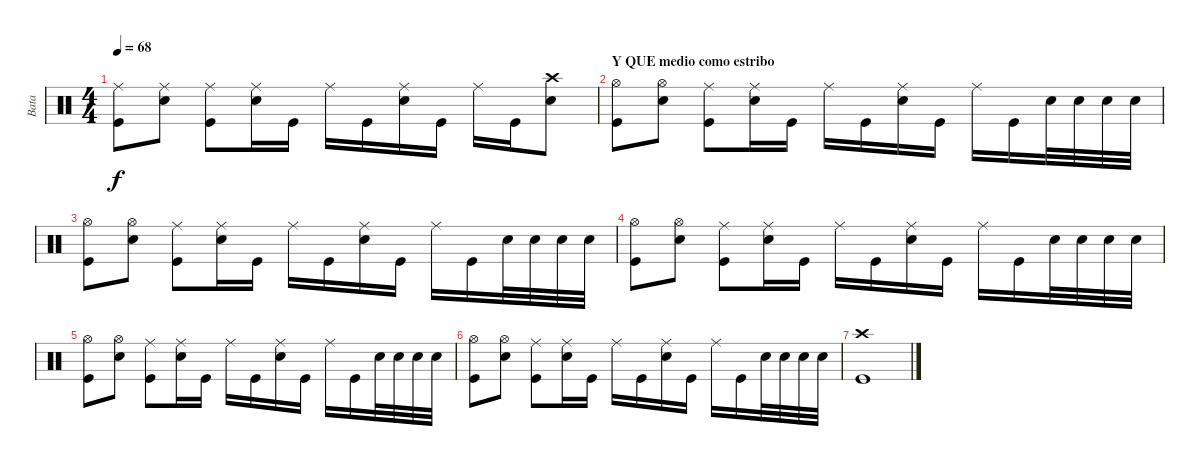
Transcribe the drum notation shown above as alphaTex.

\track ("Bata" "Bata") {instrument percussion}
\staff {score}
\articulation defaults
\ts (4 4)
\tempo 68
\clef neutral
\ks c
("Ride (middle)" "Kick (hit)").8{dy f} ("Ride (middle)" "Electric Snare (hit)").8 ("Ride (middle)" "Kick (hit)").8 ("Ride (middle)" "Electric Snare (hit)").16 "Kick (hit)".16 "Ride (middle)".16 "Kick (hit)".16 ("Ride (middle)" "Electric Snare (hit)").16 "Kick (hit)".16 "Ride (middle)".16 "Kick (hit)".16 ("Crash high (hit)" "Electric Snare (hit)").8 |
\section ("" "Y QUE medio como estribo")
("Hi-Hat (open)" "Kick (hit)").8 ("Hi-Hat (open)" "Electric Snare (hit)").8 ("Ride (middle)" "Kick (hit)").8 ("Ride (middle)" "Electric Snare (hit)").16 "Kick (hit)".16 "Ride (middle)".16 "Kick (hit)".16 ("Ride (middle)" "Electric Snare (hit)").16 "Kick (hit)".16 "Ride (middle)".16 "Kick (hit)".16 "Electric Snare (hit)".32 "Electric Snare (hit)".32 "Electric Snare (hit)".32 "Electric Snare (hit)".32 |
("Hi-Hat (open)" "Kick (hit)").8 ("Hi-Hat (open)" "Electric Snare (hit)").8 ("Ride (middle)" "Kick (hit)").8 ("Ride (middle)" "Electric Snare (hit)").16 "Kick (hit)".16 "Ride (middle)".16 "Kick (hit)".16 ("Ride (middle)" "Electric Snare (hit)").16 "Kick (hit)".16 "Ride (middle)".16 "Kick (hit)".16 "Electric Snare (hit)".32 "Electric Snare (hit)".32 "Electric Snare (hit)".32 "Electric Snare (hit)".32 |
("Hi-Hat (open)" "Kick (hit)").8 ("Hi-Hat (open)" "Electric Snare (hit)").8 ("Ride (middle)" "Kick (hit)").8 ("Ride (middle)" "Electric Snare (hit)").16 "Kick (hit)".16 "Ride (middle)".16 "Kick (hit)".16 ("Ride (middle)" "Electric Snare (hit)").16 "Kick (hit)".16 "Ride (middle)".16 "Kick (hit)".16 "Electric Snare (hit)".32 "Electric Snare (hit)".32 "Electric Snare (hit)".32 "Electric Snare (hit)".32 |
("Hi-Hat (open)" "Kick (hit)").8 ("Hi-Hat (open)" "Electric Snare (hit)").8 ("Ride (middle)" "Kick (hit)").8 ("Ride (middle)" "Electric Snare (hit)").16 "Kick (hit)".16 "Ride (middle)".16 "Kick (hit)".16 ("Ride (middle)" "Electric Snare (hit)").16 "Kick (hit)".16 "Ride (middle)".16 "Kick (hit)".16 "Electric Snare (hit)".32 "Electric Snare (hit)".32 "Electric Snare (hit)".32 "Electric Snare (hit)".32 |
("Hi-Hat (open)" "Kick (hit)").8 ("Hi-Hat (open)" "Electric Snare (hit)").8 ("Ride (middle)" "Kick (hit)").8 ("Ride (middle)" "Electric Snare (hit)").16 "Kick (hit)".16 "Ride (middle)".16 "Kick (hit)".16 ("Ride (middle)" "Electric Snare (hit)").16 "Kick (hit)".16 "Ride (middle)".16 "Kick (hit)".16 "Electric Snare (hit)".32 "Electric Snare (hit)".32 "Electric Snare (hit)".32 "Electric Snare (hit)".32 |
("Crash high (hit)" "Kick (hit)").1
